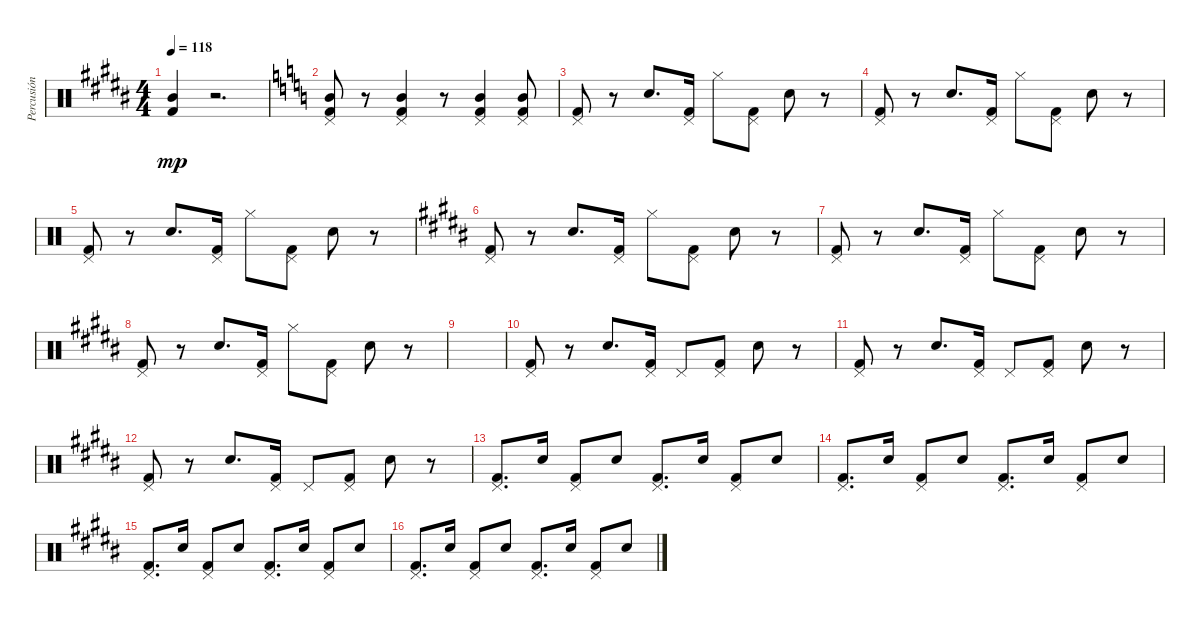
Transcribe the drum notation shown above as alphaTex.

\track ("Percusión" "Percusión") {instrument percussion}
\staff {score}
\articulation defaults
\ts (4 4)
\tempo 118
\clef neutral
\ks b
("Mid Tom (hit)" "Kick (hit) 2").4{dy mp} r.2{d} |
\ks c
("Pedal Hi-Hat (hit)" "Mid Tom (hit)" "Kick (hit) 2").8 r.8 ("Pedal Hi-Hat (hit)" "Mid Tom (hit)" "Kick (hit) 2").4 r.8 ("Pedal Hi-Hat (hit)" "Mid Tom (hit)" "Kick (hit) 2").4 ("Pedal Hi-Hat (hit)" "Mid Tom (hit)" "Kick (hit) 2").8 |
("Pedal Hi-Hat (hit)" "Kick (hit) 2").8 r.8 "Snare (hit) 2".8{d} ("Pedal Hi-Hat (hit)" "Kick (hit) 2").16 "Hi-Hat (closed)".8 ("Pedal Hi-Hat (hit)" "Kick (hit) 2").8 "Snare (hit) 2".8 r.8 |
("Pedal Hi-Hat (hit)" "Kick (hit) 2").8 r.8 "Snare (hit) 2".8{d} ("Pedal Hi-Hat (hit)" "Kick (hit) 2").16 "Hi-Hat (closed)".8 ("Pedal Hi-Hat (hit)" "Kick (hit) 2").8 "Snare (hit) 2".8 r.8 |
("Pedal Hi-Hat (hit)" "Kick (hit) 2").8 r.8 "Snare (hit) 2".8{d} ("Pedal Hi-Hat (hit)" "Kick (hit) 2").16 "Hi-Hat (closed)".8 ("Pedal Hi-Hat (hit)" "Kick (hit) 2").8 "Snare (hit) 2".8 r.8 |
\ks b
("Pedal Hi-Hat (hit)" "Kick (hit) 2").8 r.8 "Snare (hit) 2".8{d} ("Pedal Hi-Hat (hit)" "Kick (hit) 2").16 "Hi-Hat (closed)".8 ("Pedal Hi-Hat (hit)" "Kick (hit) 2").8 "Snare (hit) 2".8 r.8 |
("Pedal Hi-Hat (hit)" "Kick (hit) 2").8 r.8 "Snare (hit) 2".8{d} ("Pedal Hi-Hat (hit)" "Kick (hit) 2").16 "Hi-Hat (closed)".8 ("Pedal Hi-Hat (hit)" "Kick (hit) 2").8 "Snare (hit) 2".8 r.8 |
("Pedal Hi-Hat (hit)" "Kick (hit) 2").8 r.8 "Snare (hit) 2".8{d} ("Pedal Hi-Hat (hit)" "Kick (hit) 2").16 "Hi-Hat (closed)".8 ("Pedal Hi-Hat (hit)" "Kick (hit) 2").8 "Snare (hit) 2".8 r.8 |
|
("Pedal Hi-Hat (hit)" "Kick (hit) 2").8 r.8 "Snare (hit) 2".8{d} ("Pedal Hi-Hat (hit)" "Kick (hit) 2").16 "Pedal Hi-Hat (hit)".8 ("Pedal Hi-Hat (hit)" "Kick (hit) 2").8 "Snare (hit) 2".8 r.8 |
("Pedal Hi-Hat (hit)" "Kick (hit) 2").8 r.8 "Snare (hit) 2".8{d} ("Pedal Hi-Hat (hit)" "Kick (hit) 2").16 "Pedal Hi-Hat (hit)".8 ("Pedal Hi-Hat (hit)" "Kick (hit) 2").8 "Snare (hit) 2".8 r.8 |
("Pedal Hi-Hat (hit)" "Kick (hit) 2").8 r.8 "Snare (hit) 2".8{d} ("Pedal Hi-Hat (hit)" "Kick (hit) 2").16 "Pedal Hi-Hat (hit)".8 ("Pedal Hi-Hat (hit)" "Kick (hit) 2").8 "Snare (hit) 2".8 r.8 |
("Pedal Hi-Hat (hit)" "Kick (hit) 2").8{d} "Snare (hit) 2".16 ("Pedal Hi-Hat (hit)" "Kick (hit) 2").8 "Snare (hit) 2".8 ("Pedal Hi-Hat (hit)" "Kick (hit) 2").8{d} "Snare (hit) 2".16 ("Pedal Hi-Hat (hit)" "Kick (hit) 2").8 "Snare (hit) 2".8 |
("Pedal Hi-Hat (hit)" "Kick (hit) 2").8{d} "Snare (hit) 2".16 ("Pedal Hi-Hat (hit)" "Kick (hit) 2").8 "Snare (hit) 2".8 ("Pedal Hi-Hat (hit)" "Kick (hit) 2").8{d} "Snare (hit) 2".16 ("Pedal Hi-Hat (hit)" "Kick (hit) 2").8 "Snare (hit) 2".8 |
("Pedal Hi-Hat (hit)" "Kick (hit) 2").8{d} "Snare (hit) 2".16 ("Pedal Hi-Hat (hit)" "Kick (hit) 2").8 "Snare (hit) 2".8 ("Pedal Hi-Hat (hit)" "Kick (hit) 2").8{d} "Snare (hit) 2".16 ("Pedal Hi-Hat (hit)" "Kick (hit) 2").8 "Snare (hit) 2".8 |
("Pedal Hi-Hat (hit)" "Kick (hit) 2").8{d} "Snare (hit) 2".16 ("Pedal Hi-Hat (hit)" "Kick (hit) 2").8 "Snare (hit) 2".8 ("Pedal Hi-Hat (hit)" "Kick (hit) 2").8{d} "Snare (hit) 2".16 ("Pedal Hi-Hat (hit)" "Kick (hit) 2").8 "Snare (hit) 2".8
